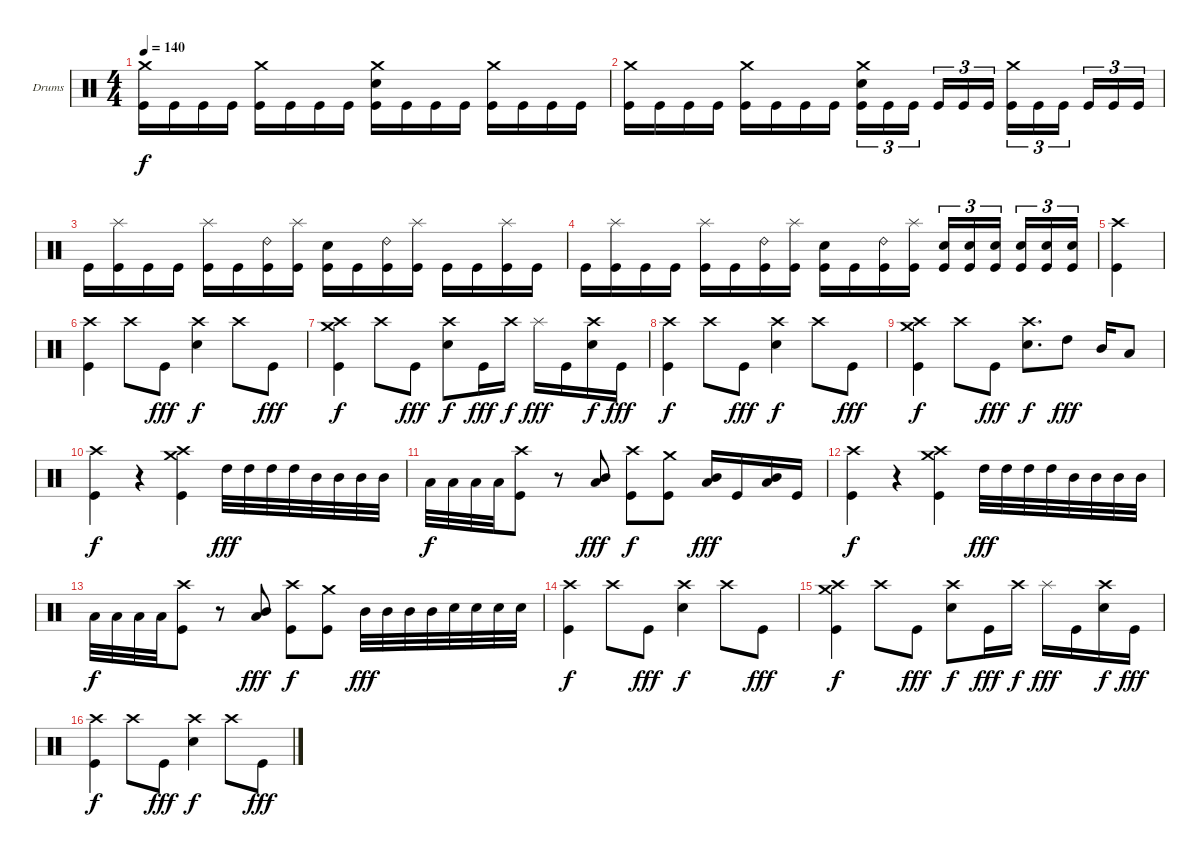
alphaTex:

\defaultSystemsLayout 4
\bracketExtendMode groupsimilarinstruments
\firstSystemTrackNameOrientation horizontal
\otherSystemsTrackNameOrientation horizontal
\track ("Drumkit" "Drums") {instrument percussion}
\staff {score}
\articulation defaults
\ts (4 4)
\tempo 140
\clef neutral
\ks c
("Crash medium (hit)" "Kick (hit)").16{dy f} "Kick (hit)".16 "Kick (hit)".16 "Kick (hit)".16 ("Crash medium (hit)" "Kick (hit)").16 "Kick (hit)".16 "Kick (hit)".16 "Kick (hit)".16 ("Crash medium (hit)" "Snare (hit) 2" "Kick (hit)").16 "Kick (hit)".16 "Kick (hit)".16 "Kick (hit)".16 ("Crash medium (hit)" "Kick (hit)").16 "Kick (hit)".16 "Kick (hit)".16 "Kick (hit)".16 |
("Crash medium (hit)" "Kick (hit)").16 "Kick (hit)".16 "Kick (hit)".16 "Kick (hit)".16 ("Crash medium (hit)" "Kick (hit)").16 "Kick (hit)".16 "Kick (hit)".16 "Kick (hit)".16 ("Crash medium (hit)" "Snare (hit) 2" "Kick (hit)").16{tu (3 2)} "Kick (hit)".16{tu (3 2)} "Kick (hit)".16{tu (3 2)} "Kick (hit)".16{tu (3 2)} "Kick (hit)".16{tu (3 2)} "Kick (hit)".16{tu (3 2)} ("Crash medium (hit)" "Kick (hit)").16{tu (3 2)} "Kick (hit)".16{tu (3 2)} "Kick (hit)".16{tu (3 2)} "Kick (hit)".16{tu (3 2)} "Kick (hit)".16{tu (3 2)} "Kick (hit)".16{tu (3 2)} |
"Kick (hit)".16 ("Splash (hit)" "Kick (hit)").16 "Kick (hit)".16 "Kick (hit)".16 ("Splash (hit)" "Kick (hit)").16 "Kick (hit)".16 ("Ride (bell) 2" "Kick (hit)").16 ("Splash (hit)" "Kick (hit)").16 ("Snare (hit) 2" "Kick (hit)").16 "Kick (hit)".16 ("Ride (bell) 2" "Kick (hit)").16 ("Splash (hit)" "Kick (hit)").16 "Kick (hit)".16 "Kick (hit)".16 ("Splash (hit)" "Kick (hit)").16 "Kick (hit)".16 |
"Kick (hit)".16 ("Splash (hit)" "Kick (hit)").16 "Kick (hit)".16 "Kick (hit)".16 ("Splash (hit)" "Kick (hit)").16 "Kick (hit)".16 ("Ride (bell) 2" "Kick (hit)").16 ("Splash (hit)" "Kick (hit)").16 ("Snare (hit) 2" "Kick (hit)").16 "Kick (hit)".16 ("Ride (bell) 2" "Kick (hit)").16 ("Splash (hit)" "Kick (hit)").16 ("Snare (hit) 2" "Kick (hit)").16{tu (3 2)} ("Snare (hit) 2" "Kick (hit)").16{tu (3 2)} ("Snare (hit) 2" "Kick (hit)").16{tu (3 2)} ("Snare (hit) 2" "Kick (hit)").16{tu (3 2)} ("Snare (hit) 2" "Kick (hit)").16{tu (3 2)} ("Snare (hit) 2" "Kick (hit)").16{tu (3 2)} |
("Crash high (hit)" "Kick (hit)").4 |
\scale
0.333333 ("Crash high (hit)" "Kick (hit)").4 "Crash high (hit)".8 "Kick (hit)".8{dy fff} ("Crash high (hit)" "Snare (hit) 2").4{dy f} "Crash high (hit)".8 "Kick (hit)".8{dy fff} |
\scale
0.333333 ("Crash high (hit)" "Crash medium (hit)" "Kick (hit)").4{dy f} "Crash high (hit)".8 "Kick (hit)".8{dy fff} ("Crash high (hit)" "Snare (hit) 2").8{dy f} "Kick (hit)".16{dy fff} "Crash high (hit)".16{dy f} "Splash (hit)".16{dy fff} "Kick (hit)".16 ("Crash high (hit)" "Snare (hit) 2").16{dy f} "Kick (hit)".16{dy fff} |
\scale
0.333333 ("Crash high (hit)" "Kick (hit)").4{dy f} "Crash high (hit)".8 "Kick (hit)".8{dy fff} ("Crash high (hit)" "Snare (hit) 2").4{dy f} "Crash high (hit)".8 "Kick (hit)".8{dy fff} |
\scale
0.333333 ("Crash high (hit)" "Crash medium (hit)" "Kick (hit)").4{dy f} "Crash high (hit)".8 "Kick (hit)".8{dy fff} ("Crash high (hit)" "Snare (hit) 2").8{d dy f} "High Tom (hit)".8{dy fff} "Mid Tom (hit)".16 "Low Tom (hit)".8 |
\scale
0.333333 ("Crash high (hit)" "Kick (hit)").4{dy f} r.4 ("Crash high (hit)" "Crash medium (hit)" "Kick (hit)").4 "High Tom (hit)".32{dy fff} "High Tom (hit)".32 "High Tom (hit)".32 "High Tom (hit)".32 "Mid Tom (hit)".32 "Mid Tom (hit)".32 "Mid Tom (hit)".32 "Mid Tom (hit)".32 |
\scale
0.333333 "Low Tom (hit)".32{dy f} "Low Tom (hit)".32 "Low Tom (hit)".32 "Low Tom (hit)".32 ("Crash high (hit)" "Kick (hit)").8 r.8 ("Mid Tom (hit)" "Low Tom (hit)").8{dy fff} ("Crash high (hit)" "Kick (hit)").8{dy f} ("Crash medium (hit)" "Kick (hit)").8 ("Mid Tom (hit)" "Low Tom (hit)").16{dy fff} "Kick (hit)".16 ("Mid Tom (hit)" "Low Tom (hit)").16 "Kick (hit)".16 |
\scale
0.333333 ("Crash high (hit)" "Kick (hit)").4{dy f} r.4 ("Crash high (hit)" "Crash medium (hit)" "Kick (hit)").4 "High Tom (hit)".32{dy fff} "High Tom (hit)".32 "High Tom (hit)".32 "High Tom (hit)".32 "Mid Tom (hit)".32 "Mid Tom (hit)".32 "Mid Tom (hit)".32 "Mid Tom (hit)".32 |
\scale
0.333333 "Low Tom (hit)".32{dy f} "Low Tom (hit)".32 "Low Tom (hit)".32 "Low Tom (hit)".32 ("Crash high (hit)" "Kick (hit)").8 r.8 ("Mid Tom (hit)" "Low Tom (hit)").8{dy fff} ("Crash high (hit)" "Kick (hit)").8{dy f} ("Crash medium (hit)" "Kick (hit)").8 "Mid Tom (hit)".32{dy fff} "Mid Tom (hit)".32 "Mid Tom (hit)".32 "Mid Tom (hit)".32 "Snare (hit) 2".32 "Snare (hit) 2".32 "Snare (hit) 2".32 "Snare (hit) 2".32 |
\scale
0.333333 ("Crash high (hit)" "Kick (hit)").4{dy f} "Crash high (hit)".8 "Kick (hit)".8{dy fff} ("Crash high (hit)" "Snare (hit) 2").4{dy f} "Crash high (hit)".8 "Kick (hit)".8{dy fff} |
\scale
0.333333 ("Crash high (hit)" "Crash medium (hit)" "Kick (hit)").4{dy f} "Crash high (hit)".8 "Kick (hit)".8{dy fff} ("Crash high (hit)" "Snare (hit) 2").8{dy f} "Kick (hit)".16{dy fff} "Crash high (hit)".16{dy f} "Splash (hit)".16{dy fff} "Kick (hit)".16 ("Crash high (hit)" "Snare (hit) 2").16{dy f} "Kick (hit)".16{dy fff} |
\scale
0.333333 ("Crash high (hit)" "Kick (hit)").4{dy f} "Crash high (hit)".8 "Kick (hit)".8{dy fff} ("Crash high (hit)" "Snare (hit) 2").4{dy f} "Crash high (hit)".8 "Kick (hit)".8{dy fff}
